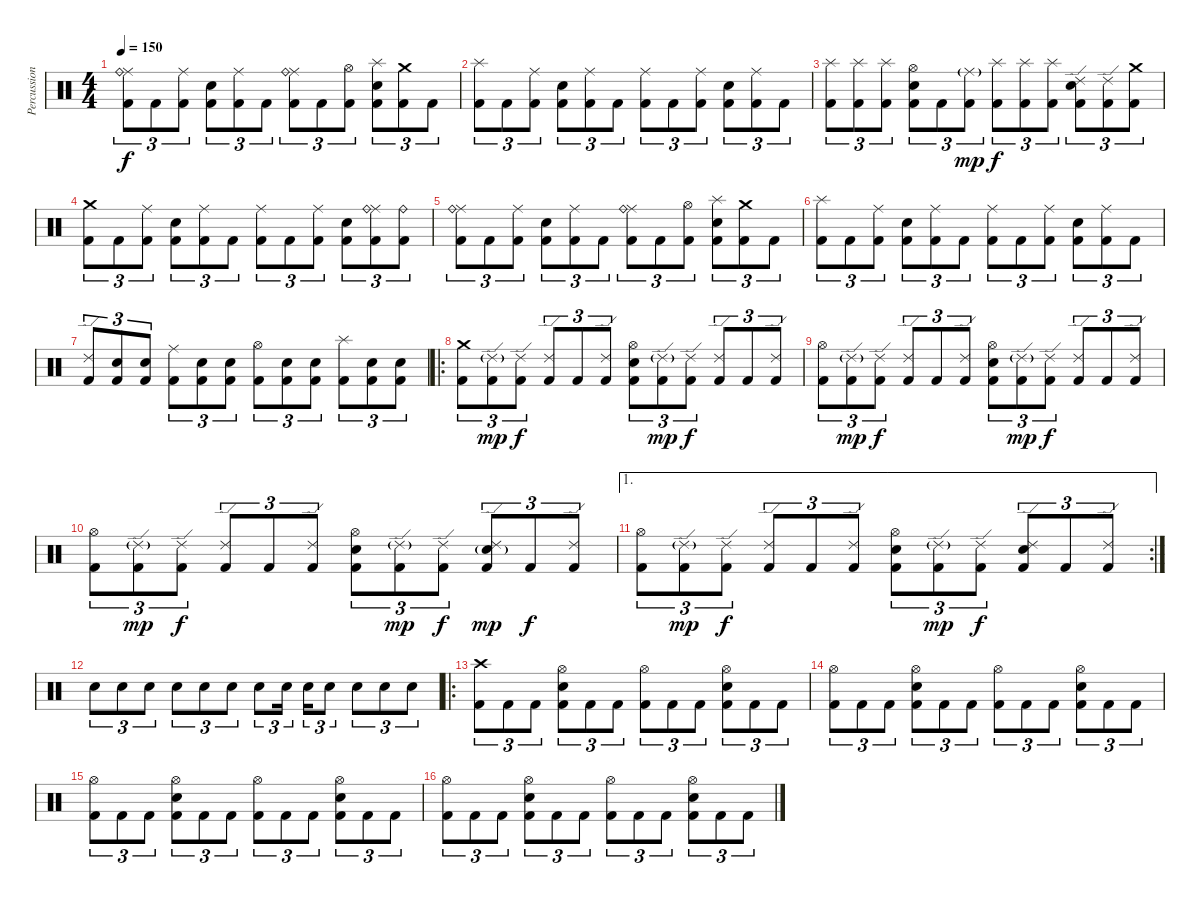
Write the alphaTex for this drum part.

\track ("Percussion" "Percussion") {instrument percussion}
\staff {score}
\articulation defaults
\ts (4 4)
\tempo 150
\clef neutral
\ks c
("Ride (middle)" "Ride (bell)" "Kick (hit) 2").8{tu (3 2) dy f} "Kick (hit) 2".8{tu (3 2)} ("Ride (middle)" "Kick (hit) 2").8{tu (3 2)} ("Electric Snare (hit)" "Kick (hit) 2").8{tu (3 2)} ("Ride (middle)" "Kick (hit) 2").8{tu (3 2)} "Kick (hit) 2".8{tu (3 2)} ("Ride (middle)" "Ride (bell)" "Kick (hit) 2").8{tu (3 2)} "Kick (hit) 2".8{tu (3 2)} ("Hi-Hat (open)" "Kick (hit) 2").8{tu (3 2)} ("Splash (hit)" "Electric Snare (hit)" "Kick (hit) 2").8{tu (3 2)} ("Crash medium (hit)" "Kick (hit) 2").8{tu (3 2)} "Kick (hit) 2".8{tu (3 2)} |
("Splash (hit)" "Kick (hit) 2").8{tu (3 2)} "Kick (hit) 2".8{tu (3 2)} ("Ride (middle)" "Kick (hit) 2").8{tu (3 2)} ("Electric Snare (hit)" "Kick (hit) 2").8{tu (3 2)} ("Ride (middle)" "Kick (hit) 2").8{tu (3 2)} "Kick (hit) 2".8{tu (3 2)} ("Ride (middle)" "Kick (hit) 2").8{tu (3 2)} "Kick (hit) 2".8{tu (3 2)} ("Ride (middle)" "Kick (hit) 2").8{tu (3 2)} ("Electric Snare (hit)" "Kick (hit) 2").8{tu (3 2)} ("Ride (middle)" "Kick (hit) 2").8{tu (3 2)} "Kick (hit) 2".8{tu (3 2)} |
("Splash (hit)" "Kick (hit) 2").8{tu (3 2)} ("Splash (hit)" "Kick (hit) 2").8{tu (3 2)} ("Splash (hit)" "Kick (hit) 2").8{tu (3 2)} ("Hi-Hat (open)" "Electric Snare (hit)" "Kick (hit) 2").8{tu (3 2)} "Kick (hit) 2".8{tu (3 2)} ("Ride (middle)"{g} "Kick (hit) 2").8{tu (3 2) dy mp} ("Splash (hit)" "Kick (hit) 2").8{tu (3 2) dy f} ("Splash (hit)" "Kick (hit) 2").8{tu (3 2)} ("Splash (hit)" "Kick (hit) 2").8{tu (3 2)} ("Ride (edge) 2" "Electric Snare (hit)" "Kick (hit) 2").8{tu (3 2)} ("Ride (edge) 2" "Kick (hit) 2").8{tu (3 2)} ("Crash medium (hit)" "Kick (hit) 2").8{tu (3 2)} |
("Crash medium (hit)" "Kick (hit) 2").8{tu (3 2)} "Kick (hit) 2".8{tu (3 2)} ("Ride (middle)" "Kick (hit) 2").8{tu (3 2)} ("Electric Snare (hit)" "Kick (hit) 2").8{tu (3 2)} ("Ride (middle)" "Kick (hit) 2").8{tu (3 2)} "Kick (hit) 2".8{tu (3 2)} ("Ride (middle)" "Kick (hit) 2").8{tu (3 2)} "Kick (hit) 2".8{tu (3 2)} ("Ride (middle)" "Kick (hit) 2").8{tu (3 2)} ("Electric Snare (hit)" "Kick (hit) 2").8{tu (3 2)} ("Ride (middle)" "Ride (bell)" "Kick (hit) 2").8{tu (3 2)} ("Ride (bell)" "Kick (hit) 2").8{tu (3 2)} |
("Ride (middle)" "Ride (bell)" "Kick (hit) 2").8{tu (3 2)} "Kick (hit) 2".8{tu (3 2)} ("Ride (middle)" "Kick (hit) 2").8{tu (3 2)} ("Electric Snare (hit)" "Kick (hit) 2").8{tu (3 2)} ("Ride (middle)" "Kick (hit) 2").8{tu (3 2)} "Kick (hit) 2".8{tu (3 2)} ("Ride (middle)" "Ride (bell)" "Kick (hit) 2").8{tu (3 2)} "Kick (hit) 2".8{tu (3 2)} ("Hi-Hat (open)" "Kick (hit) 2").8{tu (3 2)} ("Splash (hit)" "Electric Snare (hit)" "Kick (hit) 2").8{tu (3 2)} ("Crash medium (hit)" "Kick (hit) 2").8{tu (3 2)} "Kick (hit) 2".8{tu (3 2)} |
("Splash (hit)" "Kick (hit) 2").8{tu (3 2)} "Kick (hit) 2".8{tu (3 2)} ("Ride (middle)" "Kick (hit) 2").8{tu (3 2)} ("Electric Snare (hit)" "Kick (hit) 2").8{tu (3 2)} ("Ride (middle)" "Kick (hit) 2").8{tu (3 2)} "Kick (hit) 2".8{tu (3 2)} ("Ride (middle)" "Kick (hit) 2").8{tu (3 2)} "Kick (hit) 2".8{tu (3 2)} ("Ride (middle)" "Kick (hit) 2").8{tu (3 2)} ("Electric Snare (hit)" "Kick (hit) 2").8{tu (3 2)} ("Ride (middle)" "Kick (hit) 2").8{tu (3 2)} "Kick (hit) 2".8{tu (3 2)} |
("Ride (edge) 2" "Kick (hit) 2").8{tu (3 2)} ("Electric Snare (hit)" "Kick (hit) 2").8{tu (3 2)} ("Electric Snare (hit)" "Kick (hit) 2").8{tu (3 2)} ("Ride (middle)" "Kick (hit) 2").8{tu (3 2)} ("Electric Snare (hit)" "Kick (hit) 2").8{tu (3 2)} ("Electric Snare (hit)" "Kick (hit) 2").8{tu (3 2)} ("Hi-Hat (open)" "Kick (hit) 2").8{tu (3 2)} ("Electric Snare (hit)" "Kick (hit) 2").8{tu (3 2)} ("Electric Snare (hit)" "Kick (hit) 2").8{tu (3 2)} ("Splash (hit)" "Kick (hit) 2").8{tu (3 2)} ("Electric Snare (hit)" "Kick (hit) 2").8{tu (3 2)} ("Electric Snare (hit)" "Kick (hit) 2").8{tu (3 2)} |
\ro
("Crash medium (hit)" "Kick (hit) 2").8{tu (3 2)} ("Ride (edge) 2"{g} "Kick (hit) 2").8{tu (3 2) dy mp} ("Ride (edge) 2" "Kick (hit) 2").8{tu (3 2) dy f} ("Ride (edge) 2" "Kick (hit) 2").8{tu (3 2)} "Kick (hit) 2".8{tu (3 2)} ("Ride (edge) 2" "Kick (hit) 2").8{tu (3 2)} ("Hi-Hat (open)" "Electric Snare (hit)" "Kick (hit) 2").8{tu (3 2)} ("Ride (edge) 2"{g} "Kick (hit) 2").8{tu (3 2) dy mp} ("Ride (edge) 2" "Kick (hit) 2").8{tu (3 2) dy f} ("Ride (edge) 2" "Kick (hit) 2").8{tu (3 2)} "Kick (hit) 2".8{tu (3 2)} ("Ride (edge) 2" "Kick (hit) 2").8{tu (3 2)} |
("Hi-Hat (open)" "Kick (hit) 2").8{tu (3 2)} ("Ride (edge) 2"{g} "Kick (hit) 2").8{tu (3 2) dy mp} ("Ride (edge) 2" "Kick (hit) 2").8{tu (3 2) dy f} ("Ride (edge) 2" "Kick (hit) 2").8{tu (3 2)} "Kick (hit) 2".8{tu (3 2)} ("Ride (edge) 2" "Kick (hit) 2").8{tu (3 2)} ("Hi-Hat (open)" "Electric Snare (hit)" "Kick (hit) 2").8{tu (3 2)} ("Ride (edge) 2"{g} "Kick (hit) 2").8{tu (3 2) dy mp} ("Ride (edge) 2" "Kick (hit) 2").8{tu (3 2) dy f} ("Ride (edge) 2" "Kick (hit) 2").8{tu (3 2)} "Kick (hit) 2".8{tu (3 2)} ("Ride (edge) 2" "Kick (hit) 2").8{tu (3 2)} |
("Hi-Hat (open)" "Kick (hit) 2").8{tu (3 2)} ("Ride (edge) 2"{g} "Kick (hit) 2").8{tu (3 2) dy mp} ("Ride (edge) 2" "Kick (hit) 2").8{tu (3 2) dy f} ("Ride (edge) 2" "Kick (hit) 2").8{tu (3 2)} "Kick (hit) 2".8{tu (3 2)} ("Ride (edge) 2" "Kick (hit) 2").8{tu (3 2)} ("Hi-Hat (open)" "Electric Snare (hit)" "Kick (hit) 2").8{tu (3 2)} ("Ride (edge) 2"{g} "Kick (hit) 2").8{tu (3 2) dy mp} ("Ride (edge) 2" "Kick (hit) 2").8{tu (3 2) dy f} ("Ride (edge) 2" "Electric Snare (hit)"{g} "Kick (hit) 2").8{tu (3 2) dy mp} "Kick (hit) 2".8{tu (3 2) dy f} ("Ride (edge) 2" "Kick (hit) 2").8{tu (3 2)} |
\ae 1
\rc 2
("Hi-Hat (open)" "Kick (hit) 2").8{tu (3 2)} ("Ride (edge) 2"{g} "Kick (hit) 2").8{tu (3 2) dy mp} ("Ride (edge) 2" "Kick (hit) 2").8{tu (3 2) dy f} ("Ride (edge) 2" "Kick (hit) 2").8{tu (3 2)} "Kick (hit) 2".8{tu (3 2)} ("Ride (edge) 2" "Kick (hit) 2").8{tu (3 2)} ("Hi-Hat (open)" "Electric Snare (hit)" "Kick (hit) 2").8{tu (3 2)} ("Ride (edge) 2"{g} "Kick (hit) 2").8{tu (3 2) dy mp} ("Ride (edge) 2" "Kick (hit) 2").8{tu (3 2) dy f} ("Ride (edge) 2" "Electric Snare (hit)" "Kick (hit) 2").8{tu (3 2)} "Kick (hit) 2".8{tu (3 2)} ("Ride (edge) 2" "Kick (hit) 2").8{tu (3 2)} |
"Electric Snare (hit)".8{tu (3 2)} "Electric Snare (hit)".8{tu (3 2)} "Electric Snare (hit)".8{tu (3 2)} "Electric Snare (hit)".8{tu (3 2)} "Electric Snare (hit)".8{tu (3 2)} "Electric Snare (hit)".8{tu (3 2)} "Electric Snare (hit)".8{tu (3 2)} "Electric Snare (hit)".16{tu (3 2) beam splitsecondary} "Electric Snare (hit)".16{tu (3 2)} "Electric Snare (hit)".8{tu (3 2)} "Electric Snare (hit)".8{tu (3 2)} "Electric Snare (hit)".8{tu (3 2)} "Electric Snare (hit)".8{tu (3 2)} |
\ro
("Crash high (hit)" "Kick (hit) 2").8{tu (3 2)} "Kick (hit) 2".8{tu (3 2)} "Kick (hit) 2".8{tu (3 2)} ("Hi-Hat (open)" "Electric Snare (hit)" "Kick (hit) 2").8{tu (3 2)} "Kick (hit) 2".8{tu (3 2)} "Kick (hit) 2".8{tu (3 2)} ("Hi-Hat (open)" "Kick (hit) 2").8{tu (3 2)} "Kick (hit) 2".8{tu (3 2)} "Kick (hit) 2".8{tu (3 2)} ("Hi-Hat (open)" "Electric Snare (hit)" "Kick (hit) 2").8{tu (3 2)} "Kick (hit) 2".8{tu (3 2)} "Kick (hit) 2".8{tu (3 2)} |
("Hi-Hat (open)" "Kick (hit) 2").8{tu (3 2)} "Kick (hit) 2".8{tu (3 2)} "Kick (hit) 2".8{tu (3 2)} ("Hi-Hat (open)" "Electric Snare (hit)" "Kick (hit) 2").8{tu (3 2)} "Kick (hit) 2".8{tu (3 2)} "Kick (hit) 2".8{tu (3 2)} ("Hi-Hat (open)" "Kick (hit) 2").8{tu (3 2)} "Kick (hit) 2".8{tu (3 2)} "Kick (hit) 2".8{tu (3 2)} ("Hi-Hat (open)" "Electric Snare (hit)" "Kick (hit) 2").8{tu (3 2)} "Kick (hit) 2".8{tu (3 2)} "Kick (hit) 2".8{tu (3 2)} |
("Hi-Hat (open)" "Kick (hit) 2").8{tu (3 2)} "Kick (hit) 2".8{tu (3 2)} "Kick (hit) 2".8{tu (3 2)} ("Hi-Hat (open)" "Electric Snare (hit)" "Kick (hit) 2").8{tu (3 2)} "Kick (hit) 2".8{tu (3 2)} "Kick (hit) 2".8{tu (3 2)} ("Hi-Hat (open)" "Kick (hit) 2").8{tu (3 2)} "Kick (hit) 2".8{tu (3 2)} "Kick (hit) 2".8{tu (3 2)} ("Hi-Hat (open)" "Electric Snare (hit)" "Kick (hit) 2").8{tu (3 2)} "Kick (hit) 2".8{tu (3 2)} "Kick (hit) 2".8{tu (3 2)} |
("Hi-Hat (open)" "Kick (hit) 2").8{tu (3 2)} "Kick (hit) 2".8{tu (3 2)} "Kick (hit) 2".8{tu (3 2)} ("Hi-Hat (open)" "Electric Snare (hit)" "Kick (hit) 2").8{tu (3 2)} "Kick (hit) 2".8{tu (3 2)} "Kick (hit) 2".8{tu (3 2)} ("Hi-Hat (open)" "Kick (hit) 2").8{tu (3 2)} "Kick (hit) 2".8{tu (3 2)} "Kick (hit) 2".8{tu (3 2)} ("Hi-Hat (open)" "Electric Snare (hit)" "Kick (hit) 2").8{tu (3 2)} "Kick (hit) 2".8{tu (3 2)} "Kick (hit) 2".8{tu (3 2)}
